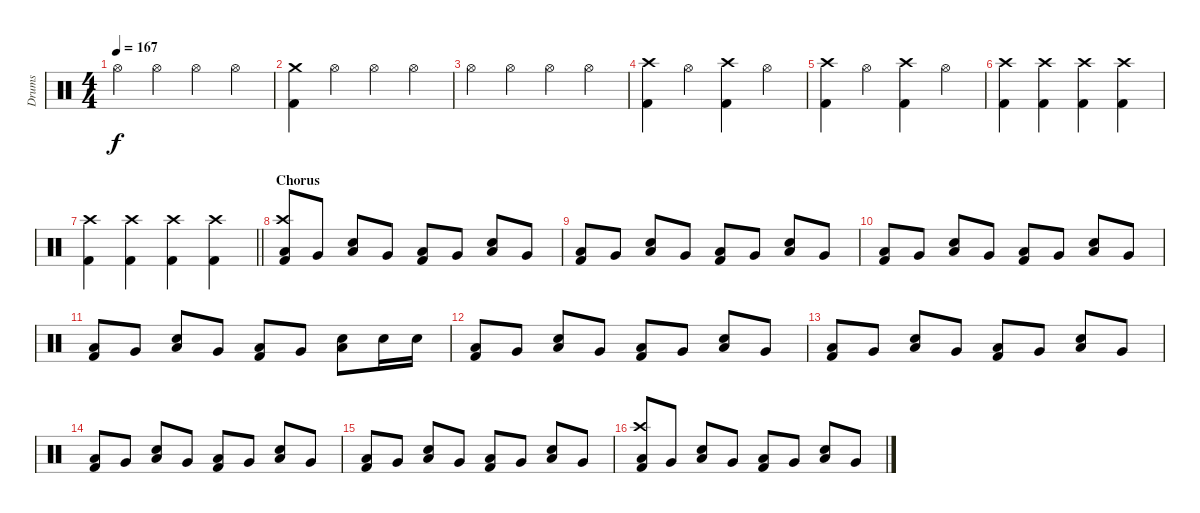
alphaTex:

\track ("Drums" "Drums") {instrument percussion}
\staff {score}
\articulation defaults
\ts (4 4)
\tempo 167
\clef neutral
\ks c "Hi-Hat (open)".4{dy f} "Hi-Hat (open)".4 "Hi-Hat (open)".4 "Hi-Hat (open)".4
|
("Crash medium (hit)" "Kick (hit) 2").4 "Hi-Hat (open)".4 "Hi-Hat (open)".4 "Hi-Hat (open)".4 |
"Hi-Hat (open)".4 "Hi-Hat (open)".4 "Hi-Hat (open)".4 "Hi-Hat (open)".4 |
("Crash high (hit)" "Kick (hit) 2").4 "Hi-Hat (open)".4 ("Crash high (hit)" "Kick (hit) 2").4 "Hi-Hat (open)".4 |
("Crash high (hit)" "Kick (hit) 2").4 "Hi-Hat (open)".4 ("Crash high (hit)" "Kick (hit) 2").4 "Hi-Hat (open)".4 |
("Crash high (hit)" "Kick (hit) 2").4 ("Crash high (hit)" "Kick (hit) 2").4 ("Crash high (hit)" "Kick (hit) 2").4 ("Crash high (hit)" "Kick (hit) 2").4 |
\barLineRight lightlight
("Crash high (hit)" "Kick (hit) 2").4 ("Crash high (hit)" "Kick (hit) 2").4 ("Crash high (hit)" "Kick (hit) 2").4 ("Crash high (hit)" "Kick (hit) 2").4 |
\section ("" "Chorus")
("Crash high (hit)" "Low Floor Tom (hit)" "Kick (hit) 2").8 "Very Low Tom (hit)".8 ("Low Floor Tom (hit)" "Snare (hit) 2").8 "Very Low Tom (hit)".8 ("Low Floor Tom (hit)" "Kick (hit) 2").8 "Very Low Tom (hit)".8 ("Low Floor Tom (hit)" "Snare (hit) 2").8 "Very Low Tom (hit)".8 |
("Low Floor Tom (hit)" "Kick (hit) 2").8 "Very Low Tom (hit)".8 ("Low Floor Tom (hit)" "Snare (hit) 2").8 "Very Low Tom (hit)".8 ("Low Floor Tom (hit)" "Kick (hit) 2").8 "Very Low Tom (hit)".8 ("Low Floor Tom (hit)" "Snare (hit) 2").8 "Very Low Tom (hit)".8 |
("Low Floor Tom (hit)" "Kick (hit) 2").8 "Very Low Tom (hit)".8 ("Low Floor Tom (hit)" "Snare (hit) 2").8 "Very Low Tom (hit)".8 ("Low Floor Tom (hit)" "Kick (hit) 2").8 "Very Low Tom (hit)".8 ("Low Floor Tom (hit)" "Snare (hit) 2").8 "Very Low Tom (hit)".8 |
("Low Floor Tom (hit)" "Kick (hit) 2").8 "Very Low Tom (hit)".8 ("Low Floor Tom (hit)" "Snare (hit) 2").8 "Very Low Tom (hit)".8 ("Low Floor Tom (hit)" "Kick (hit) 2").8 "Very Low Tom (hit)".8 ("Low Floor Tom (hit)" "Snare (hit) 2").8 "Snare (hit) 2".16 "Snare (hit) 2".16 |
("Low Floor Tom (hit)" "Kick (hit) 2").8 "Very Low Tom (hit)".8 ("Low Floor Tom (hit)" "Snare (hit) 2").8 "Very Low Tom (hit)".8 ("Low Floor Tom (hit)" "Kick (hit) 2").8 "Very Low Tom (hit)".8 ("Low Floor Tom (hit)" "Snare (hit) 2").8 "Very Low Tom (hit)".8 |
("Low Floor Tom (hit)" "Kick (hit) 2").8 "Very Low Tom (hit)".8 ("Low Floor Tom (hit)" "Snare (hit) 2").8 "Very Low Tom (hit)".8 ("Low Floor Tom (hit)" "Kick (hit) 2").8 "Very Low Tom (hit)".8 ("Low Floor Tom (hit)" "Snare (hit) 2").8 "Very Low Tom (hit)".8 |
("Low Floor Tom (hit)" "Kick (hit) 2").8 "Very Low Tom (hit)".8 ("Low Floor Tom (hit)" "Snare (hit) 2").8 "Very Low Tom (hit)".8 ("Low Floor Tom (hit)" "Kick (hit) 2").8 "Very Low Tom (hit)".8 ("Low Floor Tom (hit)" "Snare (hit) 2").8 "Very Low Tom (hit)".8 |
("Low Floor Tom (hit)" "Kick (hit) 2").8 "Very Low Tom (hit)".8 ("Low Floor Tom (hit)" "Snare (hit) 2").8 "Very Low Tom (hit)".8 ("Low Floor Tom (hit)" "Kick (hit) 2").8 "Very Low Tom (hit)".8 ("Low Floor Tom (hit)" "Snare (hit) 2").8 "Very Low Tom (hit)".8 |
("Crash high (hit)" "Low Floor Tom (hit)" "Kick (hit) 2").8 "Very Low Tom (hit)".8 ("Low Floor Tom (hit)" "Snare (hit) 2").8 "Very Low Tom (hit)".8 ("Low Floor Tom (hit)" "Kick (hit) 2").8 "Very Low Tom (hit)".8 ("Low Floor Tom (hit)" "Snare (hit) 2").8 "Very Low Tom (hit)".8
